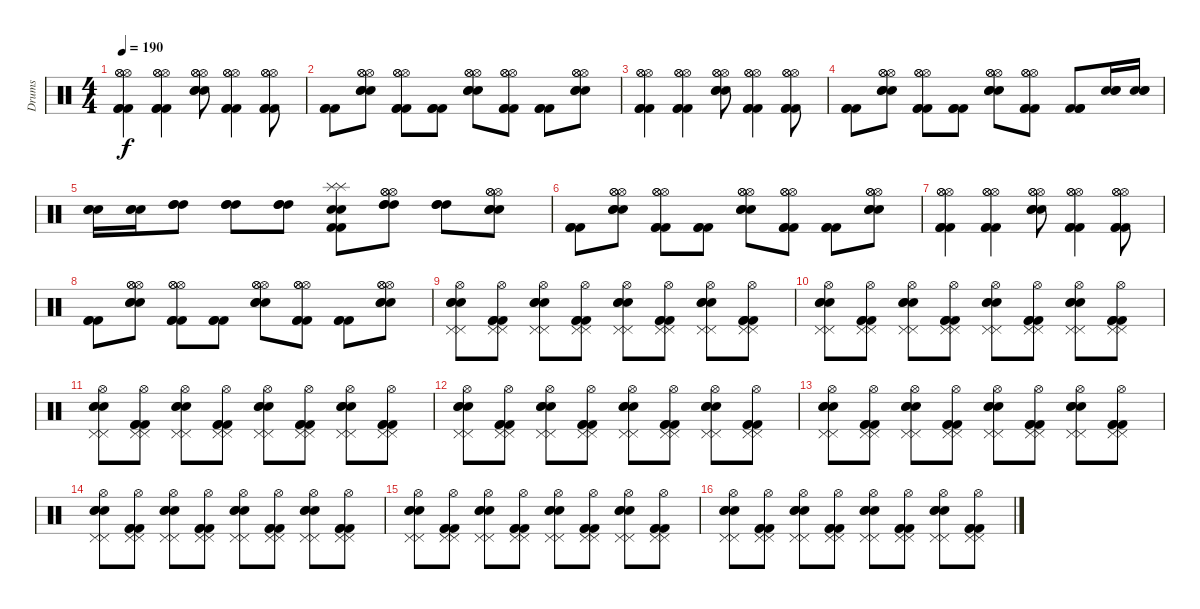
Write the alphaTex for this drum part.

\track ("Drums" "Drums") {instrument percussion}
\staff {score}
\articulation defaults
\ts (4 4)
\tempo 190
\clef neutral
\ks c
("Kick (hit) 2" "Kick (hit) 2" "Kick (hit) 2" "Hi-Hat (open)" "Hi-Hat (open)" "Hi-Hat (open)").4{dy f} ("Kick (hit) 2" "Kick (hit) 2" "Kick (hit) 2" "Hi-Hat (open)" "Hi-Hat (open)" "Hi-Hat (open)").4 ("Snare (hit) 2" "Snare (hit) 2" "Snare (hit) 2" "Hi-Hat (open)" "Hi-Hat (open)" "Hi-Hat (open)").8 ("Kick (hit) 2" "Kick (hit) 2" "Kick (hit) 2" "Hi-Hat (open)" "Hi-Hat (open)" "Hi-Hat (open)").4 ("Kick (hit) 2" "Kick (hit) 2" "Kick (hit) 2" "Hi-Hat (open)" "Hi-Hat (open)" "Hi-Hat (open)").8 |
("Kick (hit) 2" "Kick (hit) 2" "Kick (hit) 2").8 ("Snare (hit) 2" "Snare (hit) 2" "Snare (hit) 2" "Hi-Hat (open)" "Hi-Hat (open)" "Hi-Hat (open)").8 ("Kick (hit) 2" "Kick (hit) 2" "Kick (hit) 2" "Hi-Hat (open)" "Hi-Hat (open)" "Hi-Hat (open)").8 ("Kick (hit) 2" "Kick (hit) 2" "Kick (hit) 2").8 ("Snare (hit) 2" "Snare (hit) 2" "Snare (hit) 2" "Hi-Hat (open)" "Hi-Hat (open)" "Hi-Hat (open)").8 ("Kick (hit) 2" "Kick (hit) 2" "Kick (hit) 2" "Hi-Hat (open)" "Hi-Hat (open)" "Hi-Hat (open)").8 ("Kick (hit) 2" "Kick (hit) 2" "Kick (hit) 2").8 ("Snare (hit) 2" "Snare (hit) 2" "Snare (hit) 2" "Hi-Hat (open)" "Hi-Hat (open)" "Hi-Hat (open)").8 |
("Kick (hit) 2" "Kick (hit) 2" "Kick (hit) 2" "Hi-Hat (open)" "Hi-Hat (open)" "Hi-Hat (open)").4 ("Kick (hit) 2" "Kick (hit) 2" "Kick (hit) 2" "Hi-Hat (open)" "Hi-Hat (open)" "Hi-Hat (open)").4 ("Snare (hit) 2" "Snare (hit) 2" "Snare (hit) 2" "Hi-Hat (open)" "Hi-Hat (open)" "Hi-Hat (open)").8 ("Kick (hit) 2" "Kick (hit) 2" "Kick (hit) 2" "Hi-Hat (open)" "Hi-Hat (open)" "Hi-Hat (open)").4 ("Kick (hit) 2" "Kick (hit) 2" "Kick (hit) 2" "Hi-Hat (open)" "Hi-Hat (open)" "Hi-Hat (open)").8 |
("Kick (hit) 2" "Kick (hit) 2" "Kick (hit) 2").8 ("Snare (hit) 2" "Snare (hit) 2" "Snare (hit) 2" "Hi-Hat (open)" "Hi-Hat (open)" "Hi-Hat (open)").8 ("Kick (hit) 2" "Kick (hit) 2" "Kick (hit) 2" "Hi-Hat (open)" "Hi-Hat (open)" "Hi-Hat (open)").8 ("Kick (hit) 2" "Kick (hit) 2" "Kick (hit) 2").8 ("Snare (hit) 2" "Snare (hit) 2" "Snare (hit) 2" "Hi-Hat (open)" "Hi-Hat (open)" "Hi-Hat (open)").8 ("Kick (hit) 2" "Kick (hit) 2" "Kick (hit) 2" "Hi-Hat (open)" "Hi-Hat (open)" "Hi-Hat (open)").8 ("Kick (hit) 2" "Kick (hit) 2" "Kick (hit) 2").8 ("Snare (hit) 2" "Snare (hit) 2" "Snare (hit) 2").16 ("Snare (hit) 2" "Snare (hit) 2" "Snare (hit) 2").16 |
("Snare (hit) 2" "Snare (hit) 2" "Snare (hit) 2").16 ("Snare (hit) 2" "Snare (hit) 2" "Snare (hit) 2").16 ("High Tom (hit)" "High Tom (hit)" "High Tom (hit)").8 ("High Tom (hit)" "High Tom (hit)" "High Tom (hit)").8 ("High Tom (hit)" "High Tom (hit)" "High Tom (hit)").8 ("Snare (hit) 2" "Snare (hit) 2" "Kick (hit) 2" "Kick (hit) 2" "Splash (hit)" "Splash (hit)").8 ("High Tom (hit)" "High Tom (hit)" "High Tom (hit)" "Hi-Hat (open)" "Hi-Hat (open)" "Hi-Hat (open)").8 ("High Tom (hit)" "High Tom (hit)" "High Tom (hit)").8 ("Snare (hit) 2" "Snare (hit) 2" "Snare (hit) 2" "Hi-Hat (open)" "Hi-Hat (open)" "Hi-Hat (open)").8 |
("Kick (hit) 2" "Kick (hit) 2" "Kick (hit) 2").8 ("Snare (hit) 2" "Snare (hit) 2" "Snare (hit) 2" "Hi-Hat (open)" "Hi-Hat (open)" "Hi-Hat (open)").8 ("Kick (hit) 2" "Kick (hit) 2" "Kick (hit) 2" "Hi-Hat (open)" "Hi-Hat (open)" "Hi-Hat (open)").8 ("Kick (hit) 2" "Kick (hit) 2" "Kick (hit) 2").8 ("Snare (hit) 2" "Snare (hit) 2" "Snare (hit) 2" "Hi-Hat (open)" "Hi-Hat (open)" "Hi-Hat (open)").8 ("Kick (hit) 2" "Kick (hit) 2" "Kick (hit) 2" "Hi-Hat (open)" "Hi-Hat (open)" "Hi-Hat (open)").8 ("Kick (hit) 2" "Kick (hit) 2" "Kick (hit) 2").8 ("Snare (hit) 2" "Snare (hit) 2" "Snare (hit) 2" "Hi-Hat (open)" "Hi-Hat (open)" "Hi-Hat (open)").8 |
("Kick (hit) 2" "Kick (hit) 2" "Kick (hit) 2" "Hi-Hat (open)" "Hi-Hat (open)" "Hi-Hat (open)").4 ("Kick (hit) 2" "Kick (hit) 2" "Kick (hit) 2" "Hi-Hat (open)" "Hi-Hat (open)" "Hi-Hat (open)").4 ("Snare (hit) 2" "Snare (hit) 2" "Snare (hit) 2" "Hi-Hat (open)" "Hi-Hat (open)" "Hi-Hat (open)").8 ("Kick (hit) 2" "Kick (hit) 2" "Kick (hit) 2" "Hi-Hat (open)" "Hi-Hat (open)" "Hi-Hat (open)").4 ("Kick (hit) 2" "Kick (hit) 2" "Kick (hit) 2" "Hi-Hat (open)" "Hi-Hat (open)" "Hi-Hat (open)").8 |
("Kick (hit) 2" "Kick (hit) 2" "Kick (hit) 2").8 ("Snare (hit) 2" "Snare (hit) 2" "Snare (hit) 2" "Hi-Hat (open)" "Hi-Hat (open)" "Hi-Hat (open)").8 ("Kick (hit) 2" "Kick (hit) 2" "Kick (hit) 2" "Hi-Hat (open)" "Hi-Hat (open)" "Hi-Hat (open)").8 ("Kick (hit) 2" "Kick (hit) 2" "Kick (hit) 2").8 ("Snare (hit) 2" "Snare (hit) 2" "Snare (hit) 2" "Hi-Hat (open)" "Hi-Hat (open)" "Hi-Hat (open)").8 ("Kick (hit) 2" "Kick (hit) 2" "Kick (hit) 2" "Hi-Hat (open)" "Hi-Hat (open)" "Hi-Hat (open)").8 ("Kick (hit) 2" "Kick (hit) 2" "Kick (hit) 2").8 ("Snare (hit) 2" "Snare (hit) 2" "Snare (hit) 2" "Hi-Hat (open)" "Hi-Hat (open)" "Hi-Hat (open)").8 |
("Snare (hit) 2" "Snare (hit) 2" "Snare (hit) 2" "Pedal Hi-Hat (hit)" "Hi-Hat (open)" "Pedal Hi-Hat (hit)").8 ("Kick (hit) 2" "Kick (hit) 2" "Kick (hit) 2" "Pedal Hi-Hat (hit)" "Hi-Hat (open)" "Pedal Hi-Hat (hit)").8 ("Snare (hit) 2" "Snare (hit) 2" "Snare (hit) 2" "Pedal Hi-Hat (hit)" "Hi-Hat (open)" "Pedal Hi-Hat (hit)").8 ("Kick (hit) 2" "Kick (hit) 2" "Kick (hit) 2" "Pedal Hi-Hat (hit)" "Hi-Hat (open)" "Pedal Hi-Hat (hit)").8 ("Snare (hit) 2" "Snare (hit) 2" "Snare (hit) 2" "Pedal Hi-Hat (hit)" "Hi-Hat (open)" "Pedal Hi-Hat (hit)").8 ("Kick (hit) 2" "Kick (hit) 2" "Kick (hit) 2" "Pedal Hi-Hat (hit)" "Hi-Hat (open)" "Pedal Hi-Hat (hit)").8 ("Snare (hit) 2" "Snare (hit) 2" "Snare (hit) 2" "Pedal Hi-Hat (hit)" "Hi-Hat (open)" "Pedal Hi-Hat (hit)").8 ("Kick (hit) 2" "Kick (hit) 2" "Kick (hit) 2" "Pedal Hi-Hat (hit)" "Hi-Hat (open)" "Pedal Hi-Hat (hit)").8 |
("Snare (hit) 2" "Snare (hit) 2" "Snare (hit) 2" "Pedal Hi-Hat (hit)" "Hi-Hat (open)" "Pedal Hi-Hat (hit)").8 ("Kick (hit) 2" "Kick (hit) 2" "Kick (hit) 2" "Pedal Hi-Hat (hit)" "Hi-Hat (open)" "Pedal Hi-Hat (hit)").8 ("Snare (hit) 2" "Snare (hit) 2" "Snare (hit) 2" "Pedal Hi-Hat (hit)" "Hi-Hat (open)" "Pedal Hi-Hat (hit)").8 ("Kick (hit) 2" "Kick (hit) 2" "Kick (hit) 2" "Pedal Hi-Hat (hit)" "Hi-Hat (open)" "Pedal Hi-Hat (hit)").8 ("Snare (hit) 2" "Snare (hit) 2" "Snare (hit) 2" "Pedal Hi-Hat (hit)" "Hi-Hat (open)" "Pedal Hi-Hat (hit)").8 ("Kick (hit) 2" "Kick (hit) 2" "Kick (hit) 2" "Pedal Hi-Hat (hit)" "Hi-Hat (open)" "Pedal Hi-Hat (hit)").8 ("Snare (hit) 2" "Snare (hit) 2" "Snare (hit) 2" "Pedal Hi-Hat (hit)" "Hi-Hat (open)" "Pedal Hi-Hat (hit)").8 ("Kick (hit) 2" "Kick (hit) 2" "Kick (hit) 2" "Pedal Hi-Hat (hit)" "Hi-Hat (open)" "Pedal Hi-Hat (hit)").8 |
("Snare (hit) 2" "Snare (hit) 2" "Snare (hit) 2" "Pedal Hi-Hat (hit)" "Hi-Hat (open)" "Pedal Hi-Hat (hit)").8 ("Kick (hit) 2" "Kick (hit) 2" "Kick (hit) 2" "Pedal Hi-Hat (hit)" "Hi-Hat (open)" "Pedal Hi-Hat (hit)").8 ("Snare (hit) 2" "Snare (hit) 2" "Snare (hit) 2" "Pedal Hi-Hat (hit)" "Hi-Hat (open)" "Pedal Hi-Hat (hit)").8 ("Kick (hit) 2" "Kick (hit) 2" "Kick (hit) 2" "Pedal Hi-Hat (hit)" "Hi-Hat (open)" "Pedal Hi-Hat (hit)").8 ("Snare (hit) 2" "Snare (hit) 2" "Snare (hit) 2" "Pedal Hi-Hat (hit)" "Hi-Hat (open)" "Pedal Hi-Hat (hit)").8 ("Kick (hit) 2" "Kick (hit) 2" "Kick (hit) 2" "Pedal Hi-Hat (hit)" "Hi-Hat (open)" "Pedal Hi-Hat (hit)").8 ("Snare (hit) 2" "Snare (hit) 2" "Snare (hit) 2" "Pedal Hi-Hat (hit)" "Hi-Hat (open)" "Pedal Hi-Hat (hit)").8 ("Kick (hit) 2" "Kick (hit) 2" "Kick (hit) 2" "Pedal Hi-Hat (hit)" "Hi-Hat (open)" "Pedal Hi-Hat (hit)").8 |
("Snare (hit) 2" "Snare (hit) 2" "Snare (hit) 2" "Pedal Hi-Hat (hit)" "Hi-Hat (open)" "Pedal Hi-Hat (hit)").8 ("Kick (hit) 2" "Kick (hit) 2" "Kick (hit) 2" "Pedal Hi-Hat (hit)" "Hi-Hat (open)" "Pedal Hi-Hat (hit)").8 ("Snare (hit) 2" "Snare (hit) 2" "Snare (hit) 2" "Pedal Hi-Hat (hit)" "Hi-Hat (open)" "Pedal Hi-Hat (hit)").8 ("Kick (hit) 2" "Kick (hit) 2" "Kick (hit) 2" "Pedal Hi-Hat (hit)" "Hi-Hat (open)" "Pedal Hi-Hat (hit)").8 ("Snare (hit) 2" "Snare (hit) 2" "Snare (hit) 2" "Pedal Hi-Hat (hit)" "Hi-Hat (open)" "Pedal Hi-Hat (hit)").8 ("Kick (hit) 2" "Kick (hit) 2" "Kick (hit) 2" "Pedal Hi-Hat (hit)" "Hi-Hat (open)" "Pedal Hi-Hat (hit)").8 ("Snare (hit) 2" "Snare (hit) 2" "Snare (hit) 2" "Pedal Hi-Hat (hit)" "Hi-Hat (open)" "Pedal Hi-Hat (hit)").8 ("Kick (hit) 2" "Kick (hit) 2" "Kick (hit) 2" "Pedal Hi-Hat (hit)" "Hi-Hat (open)" "Pedal Hi-Hat (hit)").8 |
("Snare (hit) 2" "Snare (hit) 2" "Snare (hit) 2" "Pedal Hi-Hat (hit)" "Hi-Hat (open)" "Pedal Hi-Hat (hit)").8 ("Kick (hit) 2" "Kick (hit) 2" "Kick (hit) 2" "Pedal Hi-Hat (hit)" "Hi-Hat (open)" "Pedal Hi-Hat (hit)").8 ("Snare (hit) 2" "Snare (hit) 2" "Snare (hit) 2" "Pedal Hi-Hat (hit)" "Hi-Hat (open)" "Pedal Hi-Hat (hit)").8 ("Kick (hit) 2" "Kick (hit) 2" "Kick (hit) 2" "Pedal Hi-Hat (hit)" "Hi-Hat (open)" "Pedal Hi-Hat (hit)").8 ("Snare (hit) 2" "Snare (hit) 2" "Snare (hit) 2" "Pedal Hi-Hat (hit)" "Hi-Hat (open)" "Pedal Hi-Hat (hit)").8 ("Kick (hit) 2" "Kick (hit) 2" "Kick (hit) 2" "Pedal Hi-Hat (hit)" "Hi-Hat (open)" "Pedal Hi-Hat (hit)").8 ("Snare (hit) 2" "Snare (hit) 2" "Snare (hit) 2" "Pedal Hi-Hat (hit)" "Hi-Hat (open)" "Pedal Hi-Hat (hit)").8 ("Kick (hit) 2" "Kick (hit) 2" "Kick (hit) 2" "Pedal Hi-Hat (hit)" "Hi-Hat (open)" "Pedal Hi-Hat (hit)").8 |
("Snare (hit) 2" "Snare (hit) 2" "Snare (hit) 2" "Pedal Hi-Hat (hit)" "Hi-Hat (open)" "Pedal Hi-Hat (hit)").8 ("Kick (hit) 2" "Kick (hit) 2" "Kick (hit) 2" "Pedal Hi-Hat (hit)" "Hi-Hat (open)" "Pedal Hi-Hat (hit)").8 ("Snare (hit) 2" "Snare (hit) 2" "Snare (hit) 2" "Pedal Hi-Hat (hit)" "Hi-Hat (open)" "Pedal Hi-Hat (hit)").8 ("Kick (hit) 2" "Kick (hit) 2" "Kick (hit) 2" "Pedal Hi-Hat (hit)" "Hi-Hat (open)" "Pedal Hi-Hat (hit)").8 ("Snare (hit) 2" "Snare (hit) 2" "Snare (hit) 2" "Pedal Hi-Hat (hit)" "Hi-Hat (open)" "Pedal Hi-Hat (hit)").8 ("Kick (hit) 2" "Kick (hit) 2" "Kick (hit) 2" "Pedal Hi-Hat (hit)" "Hi-Hat (open)" "Pedal Hi-Hat (hit)").8 ("Snare (hit) 2" "Snare (hit) 2" "Snare (hit) 2" "Pedal Hi-Hat (hit)" "Hi-Hat (open)" "Pedal Hi-Hat (hit)").8 ("Kick (hit) 2" "Kick (hit) 2" "Kick (hit) 2" "Pedal Hi-Hat (hit)" "Hi-Hat (open)" "Pedal Hi-Hat (hit)").8 |
("Snare (hit) 2" "Snare (hit) 2" "Snare (hit) 2" "Pedal Hi-Hat (hit)" "Hi-Hat (open)" "Pedal Hi-Hat (hit)").8 ("Kick (hit) 2" "Kick (hit) 2" "Kick (hit) 2" "Pedal Hi-Hat (hit)" "Hi-Hat (open)" "Pedal Hi-Hat (hit)").8 ("Snare (hit) 2" "Snare (hit) 2" "Snare (hit) 2" "Pedal Hi-Hat (hit)" "Hi-Hat (open)" "Pedal Hi-Hat (hit)").8 ("Kick (hit) 2" "Kick (hit) 2" "Kick (hit) 2" "Pedal Hi-Hat (hit)" "Hi-Hat (open)" "Pedal Hi-Hat (hit)").8 ("Snare (hit) 2" "Snare (hit) 2" "Snare (hit) 2" "Pedal Hi-Hat (hit)" "Hi-Hat (open)" "Pedal Hi-Hat (hit)").8 ("Kick (hit) 2" "Kick (hit) 2" "Kick (hit) 2" "Pedal Hi-Hat (hit)" "Hi-Hat (open)" "Pedal Hi-Hat (hit)").8 ("Snare (hit) 2" "Snare (hit) 2" "Snare (hit) 2" "Pedal Hi-Hat (hit)" "Hi-Hat (open)" "Pedal Hi-Hat (hit)").8 ("Kick (hit) 2" "Kick (hit) 2" "Kick (hit) 2" "Pedal Hi-Hat (hit)" "Hi-Hat (open)" "Pedal Hi-Hat (hit)").8 |
("Snare (hit) 2" "Snare (hit) 2" "Snare (hit) 2" "Pedal Hi-Hat (hit)" "Hi-Hat (open)" "Pedal Hi-Hat (hit)").8 ("Kick (hit) 2" "Kick (hit) 2" "Kick (hit) 2" "Pedal Hi-Hat (hit)" "Hi-Hat (open)" "Pedal Hi-Hat (hit)").8 ("Snare (hit) 2" "Snare (hit) 2" "Snare (hit) 2" "Pedal Hi-Hat (hit)" "Hi-Hat (open)" "Pedal Hi-Hat (hit)").8 ("Kick (hit) 2" "Kick (hit) 2" "Kick (hit) 2" "Pedal Hi-Hat (hit)" "Hi-Hat (open)" "Pedal Hi-Hat (hit)").8 ("Snare (hit) 2" "Snare (hit) 2" "Snare (hit) 2" "Pedal Hi-Hat (hit)" "Hi-Hat (open)" "Pedal Hi-Hat (hit)").8 ("Kick (hit) 2" "Kick (hit) 2" "Kick (hit) 2" "Pedal Hi-Hat (hit)" "Hi-Hat (open)" "Pedal Hi-Hat (hit)").8 ("Snare (hit) 2" "Snare (hit) 2" "Snare (hit) 2" "Pedal Hi-Hat (hit)" "Hi-Hat (open)" "Pedal Hi-Hat (hit)").8 ("Kick (hit) 2" "Kick (hit) 2" "Kick (hit) 2" "Pedal Hi-Hat (hit)" "Hi-Hat (open)" "Pedal Hi-Hat (hit)").8
